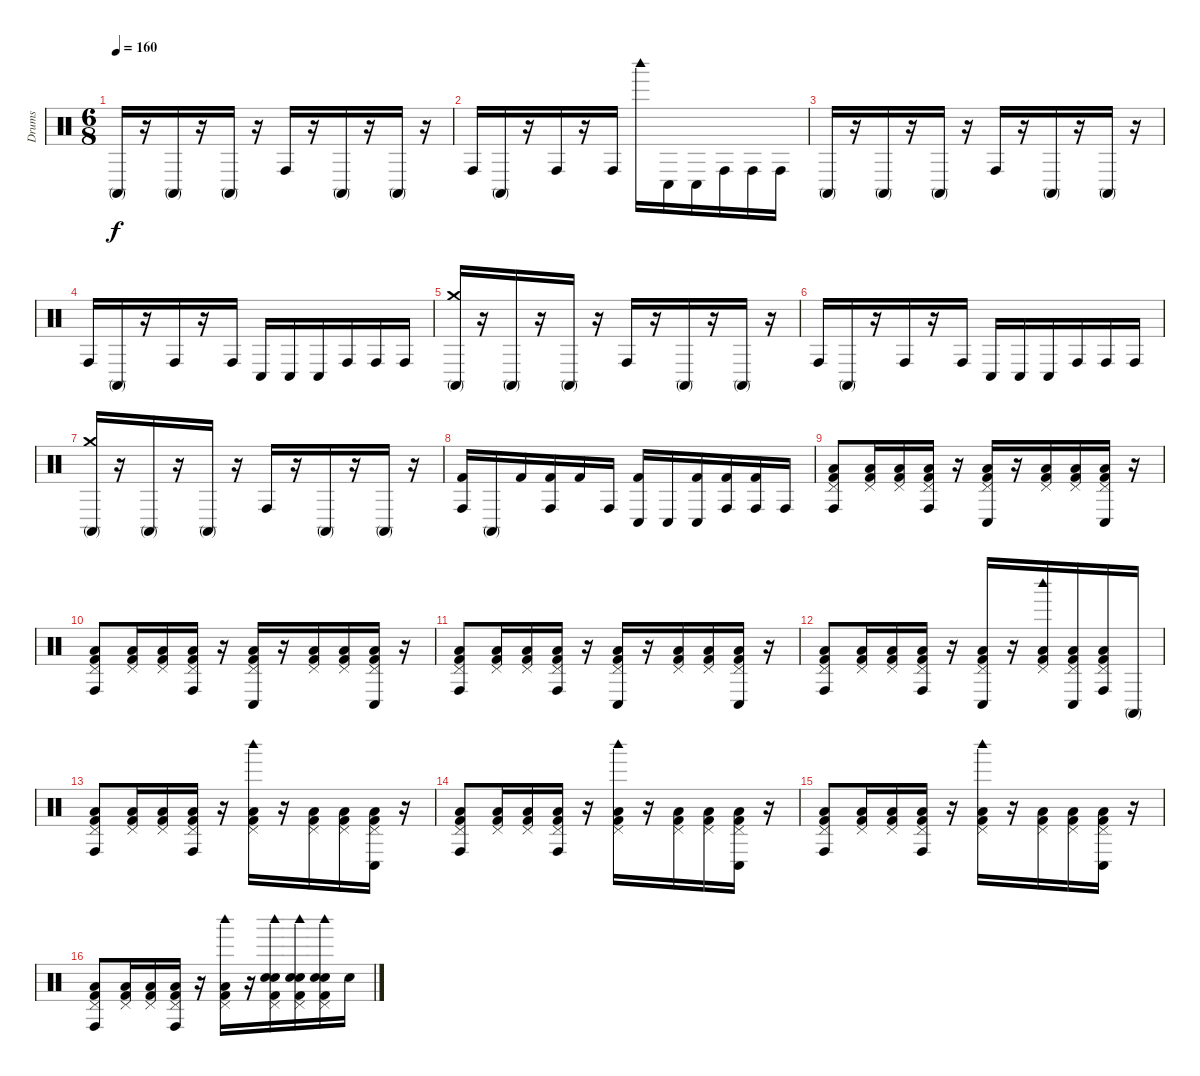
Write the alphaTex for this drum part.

\track ("Drums" "Drums") {instrument percussion}
\staff {score}
\articulation defaults
\ts (6 8)
\tempo 160
\clef neutral
\ks c "Conga high (mute)".16{dy f}
r.16 "Conga high (mute)".16 r.16 "Conga high (mute)".16 r.16 "Conga high (hit)".16 r.16 "Conga high (mute)".16 r.16 "Conga high (mute)".16 r.16 |
"Conga high (hit)".16 "Conga high (mute)".16 r.16 "Conga high (hit)".16 r.16 "Conga high (hit)".16 "Woodblock high (hit)".16 "Conga low (hit)".16 "Conga low (hit)".16 "Conga high (hit)".16 "Conga high (hit)".16 "Conga high (hit)".16 |
"Conga high (mute)".16 r.16 "Conga high (mute)".16 r.16 "Conga high (mute)".16 r.16 "Conga high (hit)".16 r.16 "Conga high (mute)".16 r.16 "Conga high (mute)".16 r.16 |
"Conga high (hit)".16 "Conga high (mute)".16 r.16 "Conga high (hit)".16 r.16 "Conga high (hit)".16 "Conga low (hit)".16 "Conga low (hit)".16 "Conga low (hit)".16 "Conga high (hit)".16 "Conga high (hit)".16 "Conga high (hit)".16 |
("Crash medium (hit)" "Conga high (mute)").16 r.16 "Conga high (mute)".16 r.16 "Conga high (mute)".16 r.16 "Conga high (hit)".16 r.16 "Conga high (mute)".16 r.16 "Conga high (mute)".16 r.16 |
"Conga high (hit)".16 "Conga high (mute)".16 r.16 "Conga high (hit)".16 r.16 "Conga high (hit)".16 "Conga low (hit)".16 "Conga low (hit)".16 "Conga low (hit)".16 "Conga high (hit)".16 "Conga high (hit)".16 "Conga high (hit)".16 |
("Crash medium (hit)" "Conga high (mute)").16 r.16 "Conga high (mute)".16 r.16 "Conga high (mute)".16 r.16 "Conga high (hit)".16 r.16 "Conga high (mute)".16 r.16 "Conga high (mute)".16 r.16 |
("Conga high (hit)" "Kick (hit) 2").16 "Conga high (mute)".16 "Kick (hit) 2".16 ("Conga high (hit)" "Kick (hit) 2").16 "Kick (hit) 2".16 "Conga high (hit)".16 ("Conga low (hit)" "Kick (hit) 2").16 "Conga low (hit)".16 ("Conga low (hit)" "Kick (hit) 2").16 ("Conga high (hit)" "Kick (hit) 2").16 ("Conga high (hit)" "Kick (hit) 2").16 "Conga high (hit)".16 |
("Conga high (hit)" "Pedal Hi-Hat (hit)" "Low Floor Tom (hit)" "Kick (hit) 2").8 ("Pedal Hi-Hat (hit)" "Low Floor Tom (hit)" "Kick (hit) 2").16 ("Pedal Hi-Hat (hit)" "Low Floor Tom (hit)" "Kick (hit) 2").16 ("Conga high (hit)" "Pedal Hi-Hat (hit)" "Low Floor Tom (hit)" "Kick (hit) 2").16 r.16 ("Conga low (hit)" "Pedal Hi-Hat (hit)" "Low Floor Tom (hit)" "Kick (hit) 2").16 r.16 ("Pedal Hi-Hat (hit)" "Low Floor Tom (hit)" "Kick (hit) 2").16 ("Pedal Hi-Hat (hit)" "Low Floor Tom (hit)" "Kick (hit) 2").16 ("Conga low (hit)" "Pedal Hi-Hat (hit)" "Low Floor Tom (hit)" "Kick (hit) 2").16 r.16 |
("Conga high (hit)" "Pedal Hi-Hat (hit)" "Low Floor Tom (hit)" "Kick (hit) 2").8 ("Pedal Hi-Hat (hit)" "Low Floor Tom (hit)" "Kick (hit) 2").16 ("Pedal Hi-Hat (hit)" "Low Floor Tom (hit)" "Kick (hit) 2").16 ("Conga high (hit)" "Pedal Hi-Hat (hit)" "Low Floor Tom (hit)" "Kick (hit) 2").16 r.16 ("Conga low (hit)" "Pedal Hi-Hat (hit)" "Low Floor Tom (hit)" "Kick (hit) 2").16 r.16 ("Pedal Hi-Hat (hit)" "Low Floor Tom (hit)" "Kick (hit) 2").16 ("Pedal Hi-Hat (hit)" "Low Floor Tom (hit)" "Kick (hit) 2").16 ("Conga low (hit)" "Pedal Hi-Hat (hit)" "Low Floor Tom (hit)" "Kick (hit) 2").16 r.16 |
("Conga high (hit)" "Pedal Hi-Hat (hit)" "Low Floor Tom (hit)" "Kick (hit) 2").8 ("Pedal Hi-Hat (hit)" "Low Floor Tom (hit)" "Kick (hit) 2").16 ("Pedal Hi-Hat (hit)" "Low Floor Tom (hit)" "Kick (hit) 2").16 ("Conga high (hit)" "Pedal Hi-Hat (hit)" "Low Floor Tom (hit)" "Kick (hit) 2").16 r.16 ("Conga low (hit)" "Pedal Hi-Hat (hit)" "Low Floor Tom (hit)" "Kick (hit) 2").16 r.16 ("Pedal Hi-Hat (hit)" "Low Floor Tom (hit)" "Kick (hit) 2").16 ("Pedal Hi-Hat (hit)" "Low Floor Tom (hit)" "Kick (hit) 2").16 ("Conga low (hit)" "Pedal Hi-Hat (hit)" "Low Floor Tom (hit)" "Kick (hit) 2").16 r.16 |
("Conga high (hit)" "Pedal Hi-Hat (hit)" "Low Floor Tom (hit)" "Kick (hit) 2").8 ("Pedal Hi-Hat (hit)" "Low Floor Tom (hit)" "Kick (hit) 2").16 ("Pedal Hi-Hat (hit)" "Low Floor Tom (hit)" "Kick (hit) 2").16 ("Conga high (hit)" "Pedal Hi-Hat (hit)" "Low Floor Tom (hit)" "Kick (hit) 2").16 r.16 ("Conga low (hit)" "Pedal Hi-Hat (hit)" "Low Floor Tom (hit)" "Kick (hit) 2").16 r.16 ("Woodblock high (hit)" "Pedal Hi-Hat (hit)" "Low Floor Tom (hit)" "Kick (hit) 2").16 ("Conga low (hit)" "Pedal Hi-Hat (hit)" "Low Floor Tom (hit)" "Kick (hit) 2").16 ("Conga high (hit)" "Pedal Hi-Hat (hit)" "Low Floor Tom (hit)" "Kick (hit) 2").16 "Conga high (mute)".16 |
("Conga high (hit)" "Pedal Hi-Hat (hit)" "Low Floor Tom (hit)" "Kick (hit) 2").8 ("Pedal Hi-Hat (hit)" "Low Floor Tom (hit)" "Kick (hit) 2").16 ("Pedal Hi-Hat (hit)" "Low Floor Tom (hit)" "Kick (hit) 2").16 ("Conga high (hit)" "Pedal Hi-Hat (hit)" "Low Floor Tom (hit)" "Kick (hit) 2").16 r.16 ("Woodblock high (hit)" "Pedal Hi-Hat (hit)" "Low Floor Tom (hit)" "Kick (hit) 2").16 r.16 ("Pedal Hi-Hat (hit)" "Low Floor Tom (hit)" "Kick (hit) 2").16 ("Pedal Hi-Hat (hit)" "Low Floor Tom (hit)" "Kick (hit) 2").16 ("Conga low (hit)" "Pedal Hi-Hat (hit)" "Low Floor Tom (hit)" "Kick (hit) 2").16 r.16 |
("Conga high (hit)" "Pedal Hi-Hat (hit)" "Low Floor Tom (hit)" "Kick (hit) 2").8 ("Pedal Hi-Hat (hit)" "Low Floor Tom (hit)" "Kick (hit) 2").16 ("Pedal Hi-Hat (hit)" "Low Floor Tom (hit)" "Kick (hit) 2").16 ("Conga high (hit)" "Pedal Hi-Hat (hit)" "Low Floor Tom (hit)" "Kick (hit) 2").16 r.16 ("Woodblock high (hit)" "Pedal Hi-Hat (hit)" "Low Floor Tom (hit)" "Kick (hit) 2").16 r.16 ("Pedal Hi-Hat (hit)" "Low Floor Tom (hit)" "Kick (hit) 2").16 ("Pedal Hi-Hat (hit)" "Low Floor Tom (hit)" "Kick (hit) 2").16 ("Conga low (hit)" "Pedal Hi-Hat (hit)" "Low Floor Tom (hit)" "Kick (hit) 2").16 r.16 |
("Conga high (hit)" "Pedal Hi-Hat (hit)" "Low Floor Tom (hit)" "Kick (hit) 2").8 ("Pedal Hi-Hat (hit)" "Low Floor Tom (hit)" "Kick (hit) 2").16 ("Pedal Hi-Hat (hit)" "Low Floor Tom (hit)" "Kick (hit) 2").16 ("Conga high (hit)" "Pedal Hi-Hat (hit)" "Low Floor Tom (hit)" "Kick (hit) 2").16 r.16 ("Woodblock high (hit)" "Pedal Hi-Hat (hit)" "Low Floor Tom (hit)" "Kick (hit) 2").16 r.16 ("Pedal Hi-Hat (hit)" "Low Floor Tom (hit)" "Kick (hit) 2").16 ("Pedal Hi-Hat (hit)" "Low Floor Tom (hit)" "Kick (hit) 2").16 ("Conga low (hit)" "Pedal Hi-Hat (hit)" "Low Floor Tom (hit)" "Kick (hit) 2").16 r.16 |
("Conga high (hit)" "Pedal Hi-Hat (hit)" "Low Floor Tom (hit)" "Kick (hit) 2").8 ("Pedal Hi-Hat (hit)" "Low Floor Tom (hit)" "Kick (hit) 2").16 ("Pedal Hi-Hat (hit)" "Low Floor Tom (hit)" "Kick (hit) 2").16 ("Conga high (hit)" "Pedal Hi-Hat (hit)" "Low Floor Tom (hit)" "Kick (hit) 2").16 r.16 ("Woodblock high (hit)" "Pedal Hi-Hat (hit)" "Low Floor Tom (hit)" "Kick (hit) 2").16 r.16 ("Woodblock high (hit)" "Pedal Hi-Hat (hit)" "Snare (hit) 2" "Electric Snare (hit)" "Kick (hit) 2").16 ("Woodblock high (hit)" "Pedal Hi-Hat (hit)" "Snare (hit) 2" "Electric Snare (hit)" "Kick (hit) 2").16 ("Woodblock high (hit)" "Pedal Hi-Hat (hit)" "Snare (hit) 2" "Electric Snare (hit)" "Kick (hit) 2").16 "Electric Snare (hit)".16
